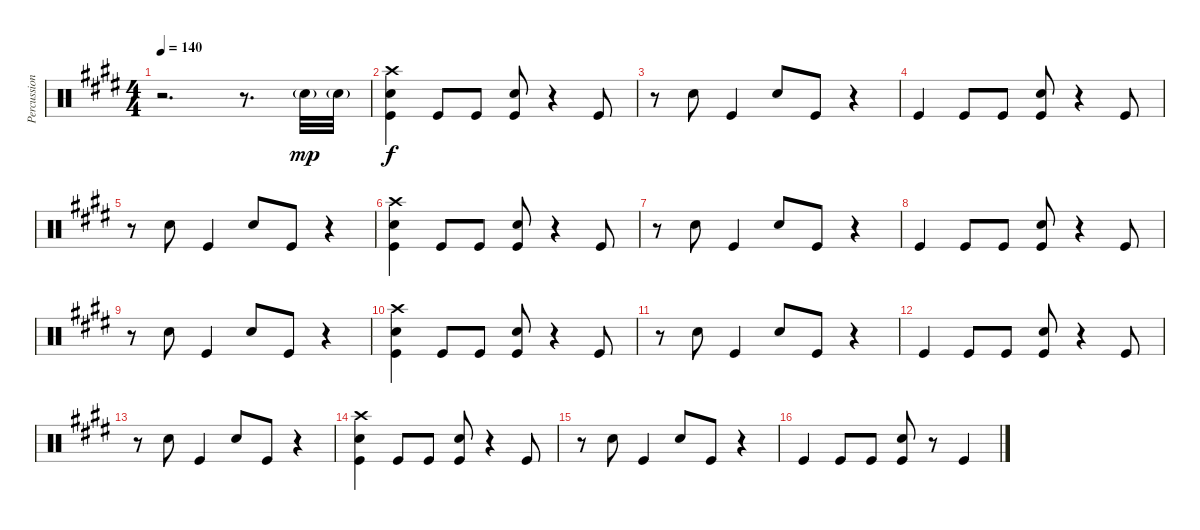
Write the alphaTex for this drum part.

\track ("Percussion" "Percussion") {instrument percussion}
\staff {score}
\articulation defaults
\ts (4 4)
\tempo 140
\clef neutral
\ks e
r.2{d dy f} r.8{d} "Snare (hit) 2"{g}.32{dy mp} "Snare (hit) 2"{g}.32 |
("Kick (hit)" "Crash high (hit)" "Snare (hit) 2").4{dy f} "Kick (hit)".8 "Kick (hit)".8 ("Kick (hit)" "Snare (hit) 2").8 r.4 "Kick (hit)".8 |
r.8 "Snare (hit) 2".8 "Kick (hit)".4 "Snare (hit) 2".8 "Kick (hit)".8 r.4 |
"Kick (hit)".4 "Kick (hit)".8 "Kick (hit)".8 ("Kick (hit)" "Snare (hit) 2").8 r.4 "Kick (hit)".8 |
r.8 "Snare (hit) 2".8 "Kick (hit)".4 "Snare (hit) 2".8 "Kick (hit)".8 r.4 |
("Kick (hit)" "Crash high (hit)" "Snare (hit) 2").4 "Kick (hit)".8 "Kick (hit)".8 ("Kick (hit)" "Snare (hit) 2").8 r.4 "Kick (hit)".8 |
r.8 "Snare (hit) 2".8 "Kick (hit)".4 "Snare (hit) 2".8 "Kick (hit)".8 r.4 |
"Kick (hit)".4 "Kick (hit)".8 "Kick (hit)".8 ("Kick (hit)" "Snare (hit) 2").8 r.4 "Kick (hit)".8 |
r.8 "Snare (hit) 2".8 "Kick (hit)".4 "Snare (hit) 2".8 "Kick (hit)".8 r.4 |
("Kick (hit)" "Crash high (hit)" "Snare (hit) 2").4 "Kick (hit)".8 "Kick (hit)".8 ("Kick (hit)" "Snare (hit) 2").8 r.4 "Kick (hit)".8 |
r.8 "Snare (hit) 2".8 "Kick (hit)".4 "Snare (hit) 2".8 "Kick (hit)".8 r.4 |
"Kick (hit)".4 "Kick (hit)".8 "Kick (hit)".8 ("Kick (hit)" "Snare (hit) 2").8 r.4 "Kick (hit)".8 |
r.8 "Snare (hit) 2".8 "Kick (hit)".4 "Snare (hit) 2".8 "Kick (hit)".8 r.4 |
("Kick (hit)" "Crash high (hit)" "Snare (hit) 2").4 "Kick (hit)".8 "Kick (hit)".8 ("Kick (hit)" "Snare (hit) 2").8 r.4 "Kick (hit)".8 |
r.8 "Snare (hit) 2".8 "Kick (hit)".4 "Snare (hit) 2".8 "Kick (hit)".8 r.4 |
"Kick (hit)".4 "Kick (hit)".8 "Kick (hit)".8 ("Kick (hit)" "Snare (hit) 2").8 r.8 "Kick (hit)".4
